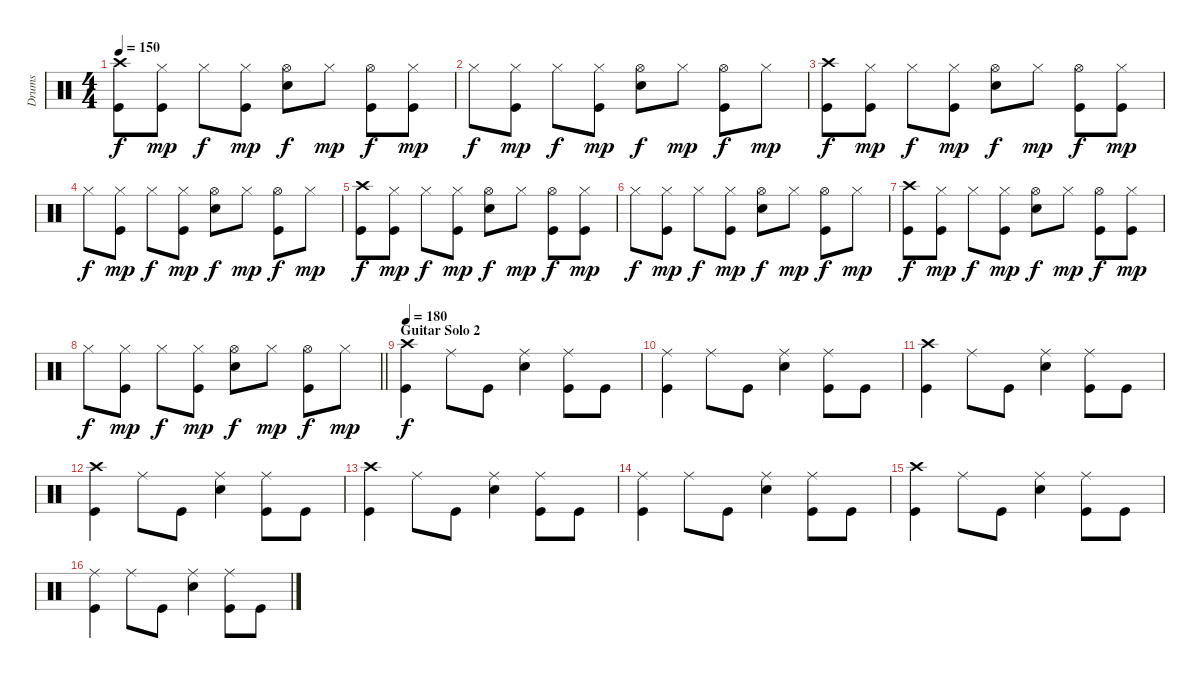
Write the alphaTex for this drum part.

\track ("Drums" "Drums") {instrument percussion}
\staff {score}
\articulation defaults
\ts (4 4)
\tempo 150
\clef neutral
\ks c
("Crash high (hit)" "Kick (hit)").8{dy f} ("Hi-Hat (closed)" "Kick (hit)").8{dy mp} "Hi-Hat (closed)".8{dy f} ("Hi-Hat (closed)" "Kick (hit)").8{dy mp} ("Hi-Hat (open)" "Electric Snare (hit)").8{dy f} "Hi-Hat (closed)".8{dy mp} ("Hi-Hat (open)" "Kick (hit)").8{dy f} ("Hi-Hat (closed)" "Kick (hit)").8{dy mp} |
"Hi-Hat (closed)".8{dy f} ("Hi-Hat (closed)" "Kick (hit)").8{dy mp} "Hi-Hat (closed)".8{dy f} ("Hi-Hat (closed)" "Kick (hit)").8{dy mp} ("Hi-Hat (open)" "Electric Snare (hit)").8{dy f} "Hi-Hat (closed)".8{dy mp} ("Hi-Hat (open)" "Kick (hit)").8{dy f} "Hi-Hat (closed)".8{dy mp} |
("Crash high (hit)" "Kick (hit)").8{dy f} ("Hi-Hat (closed)" "Kick (hit)").8{dy mp} "Hi-Hat (closed)".8{dy f} ("Hi-Hat (closed)" "Kick (hit)").8{dy mp} ("Hi-Hat (open)" "Electric Snare (hit)").8{dy f} "Hi-Hat (closed)".8{dy mp} ("Hi-Hat (open)" "Kick (hit)").8{dy f} ("Hi-Hat (closed)" "Kick (hit)").8{dy mp} |
"Hi-Hat (closed)".8{dy f} ("Hi-Hat (closed)" "Kick (hit)").8{dy mp} "Hi-Hat (closed)".8{dy f} ("Hi-Hat (closed)" "Kick (hit)").8{dy mp} ("Hi-Hat (open)" "Electric Snare (hit)").8{dy f} "Hi-Hat (closed)".8{dy mp} ("Hi-Hat (open)" "Kick (hit)").8{dy f} "Hi-Hat (closed)".8{dy mp} |
("Crash high (hit)" "Kick (hit)").8{dy f} ("Hi-Hat (closed)" "Kick (hit)").8{dy mp} "Hi-Hat (closed)".8{dy f} ("Hi-Hat (closed)" "Kick (hit)").8{dy mp} ("Hi-Hat (open)" "Electric Snare (hit)").8{dy f} "Hi-Hat (closed)".8{dy mp} ("Hi-Hat (open)" "Kick (hit)").8{dy f} ("Hi-Hat (closed)" "Kick (hit)").8{dy mp} |
"Hi-Hat (closed)".8{dy f} ("Hi-Hat (closed)" "Kick (hit)").8{dy mp} "Hi-Hat (closed)".8{dy f} ("Hi-Hat (closed)" "Kick (hit)").8{dy mp} ("Hi-Hat (open)" "Electric Snare (hit)").8{dy f} "Hi-Hat (closed)".8{dy mp} ("Hi-Hat (open)" "Kick (hit)").8{dy f} "Hi-Hat (closed)".8{dy mp} |
("Crash high (hit)" "Kick (hit)").8{dy f} ("Hi-Hat (closed)" "Kick (hit)").8{dy mp} "Hi-Hat (closed)".8{dy f} ("Hi-Hat (closed)" "Kick (hit)").8{dy mp} ("Hi-Hat (open)" "Electric Snare (hit)").8{dy f} "Hi-Hat (closed)".8{dy mp} ("Hi-Hat (open)" "Kick (hit)").8{dy f} ("Hi-Hat (closed)" "Kick (hit)").8{dy mp} |
\barLineRight lightlight "Hi-Hat (closed)".8{dy f}
("Hi-Hat (closed)" "Kick (hit)").8{dy mp} "Hi-Hat (closed)".8{dy f} ("Hi-Hat (closed)" "Kick (hit)").8{dy mp} ("Hi-Hat (open)" "Electric Snare (hit)").8{dy f} "Hi-Hat (closed)".8{dy mp} ("Hi-Hat (open)" "Kick (hit)").8{dy f} "Hi-Hat (closed)".8{dy mp} |
\section ("" "Guitar Solo 2")
\tempo 180
("Crash high (hit)" "Kick (hit)").4{dy f} "Ride (middle)".8 "Kick (hit)".8 ("Ride (middle)" "Electric Snare (hit)").4 ("Ride (middle)" "Kick (hit)").8 "Kick (hit)".8 |
("Ride (middle)" "Kick (hit)").4 "Ride (middle)".8 "Kick (hit)".8 ("Ride (middle)" "Electric Snare (hit)").4 ("Ride (middle)" "Kick (hit)").8 "Kick (hit)".8 |
("Crash high (hit)" "Kick (hit)").4 "Ride (middle)".8 "Kick (hit)".8 ("Ride (middle)" "Electric Snare (hit)").4 ("Ride (middle)" "Kick (hit)").8 "Kick (hit)".8 |
("Crash high (hit)" "Kick (hit)").4 "Ride (middle)".8 "Kick (hit)".8 ("Ride (middle)" "Electric Snare (hit)").4 ("Ride (middle)" "Kick (hit)").8 "Kick (hit)".8 |
("Crash high (hit)" "Kick (hit)").4 "Ride (middle)".8 "Kick (hit)".8 ("Ride (middle)" "Electric Snare (hit)").4 ("Ride (middle)" "Kick (hit)").8 "Kick (hit)".8 |
("Ride (middle)" "Kick (hit)").4 "Ride (middle)".8 "Kick (hit)".8 ("Ride (middle)" "Electric Snare (hit)").4 ("Ride (middle)" "Kick (hit)").8 "Kick (hit)".8 |
("Crash high (hit)" "Kick (hit)").4 "Ride (middle)".8 "Kick (hit)".8 ("Ride (middle)" "Electric Snare (hit)").4 ("Ride (middle)" "Kick (hit)").8 "Kick (hit)".8 |
("Ride (middle)" "Kick (hit)").4 "Ride (middle)".8 "Kick (hit)".8 ("Ride (middle)" "Electric Snare (hit)").4 ("Ride (middle)" "Kick (hit)").8 "Kick (hit)".8
